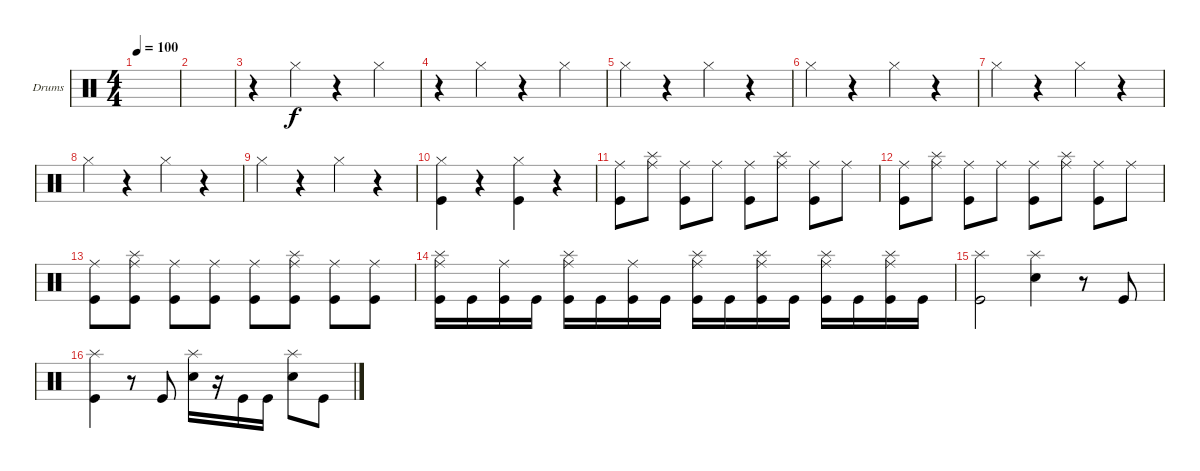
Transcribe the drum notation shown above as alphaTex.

\defaultSystemsLayout 4
\bracketExtendMode groupsimilarinstruments
\firstSystemTrackNameOrientation horizontal
\otherSystemsTrackNameOrientation horizontal
\track ("Drumkit" "Drums") {instrument percussion}
\staff {score}
\articulation defaults
\ts (4 4)
\tempo 100
\clef neutral
\scale
0.474178
\ks c
|
\scale
0.262911 |
\scale
0.262911 r.4 "Hi-Hat (closed)".4 r.4 "Hi-Hat (closed)".4 |
\scale
0.333333 r.4 "Hi-Hat (closed)".4 r.4 "Hi-Hat (closed)".4 |
\scale
0.333333 "Hi-Hat (closed)".4 r.4 "Hi-Hat (closed)".4 r.4 |
"Hi-Hat (closed)".4 r.4 "Hi-Hat (closed)".4 r.4 |
"Hi-Hat (closed)".4 r.4 "Hi-Hat (closed)".4 r.4 |
"Hi-Hat (closed)".4 r.4 "Hi-Hat (closed)".4 r.4 |
"Hi-Hat (closed)".4 r.4 "Hi-Hat (closed)".4 r.4 |
\scale
0.333333 ("Hi-Hat (closed)" "Kick (hit)").4 r.4 ("Hi-Hat (closed)" "Kick (hit)").4 r.4 |
("Kick (hit)" "Ride (middle)").8 ("Ride (middle)" "Splash (hit)").8 ("Kick (hit)" "Ride (middle)").8 "Ride (middle)".8 ("Kick (hit)" "Ride (middle)").8 ("Ride (middle)" "Splash (hit)").8 ("Kick (hit)" "Ride (middle)").8 "Ride (middle)".8 |
("Kick (hit)" "Ride (middle)").8 ("Ride (middle)" "Splash (hit)").8 ("Kick (hit)" "Ride (middle)").8 "Ride (middle)".8 ("Kick (hit)" "Ride (middle)").8 ("Ride (middle)" "Splash (hit)").8 ("Kick (hit)" "Ride (middle)").8 "Ride (middle)".8 |
("Kick (hit)" "Ride (middle)").8 ("Ride (middle)" "Splash (hit)" "Kick (hit)").8 ("Kick (hit)" "Ride (middle)").8 ("Ride (middle)" "Kick (hit)").8 ("Kick (hit)" "Ride (middle)").8 ("Ride (middle)" "Splash (hit)" "Kick (hit)").8 ("Kick (hit)" "Ride (middle)").8 ("Ride (middle)" "Kick (hit)").8 |
("Kick (hit)" "Ride (middle)" "Splash (hit)").16 "Kick (hit)".16 ("Kick (hit)" "Ride (middle)").16 "Kick (hit)".16 ("Kick (hit)" "Ride (middle)" "Splash (hit)").16 "Kick (hit)".16 ("Kick (hit)" "Ride (middle)").16 "Kick (hit)".16 ("Kick (hit)" "Ride (middle)" "Splash (hit)").16 "Kick (hit)".16 ("Kick (hit)" "Ride (middle)" "Splash (hit)").16 "Kick (hit)".16 ("Kick (hit)" "Ride (middle)" "Splash (hit)").16 "Kick (hit)".16 ("Kick (hit)" "Ride (middle)" "Splash (hit)").16 "Kick (hit)".16 |
("Splash (hit)" "Kick (hit)").2 ("Snare (hit) 2" "Splash (hit)").4 r.8 "Kick (hit)".8 |
("Kick (hit)" "Splash (hit)").4 r.8 "Kick (hit)".8 ("Snare (hit) 2" "Splash (hit)").16 r.16 "Kick (hit)".16 "Kick (hit)".16 ("Snare (hit) 2" "Splash (hit)").8 "Kick (hit)".8
